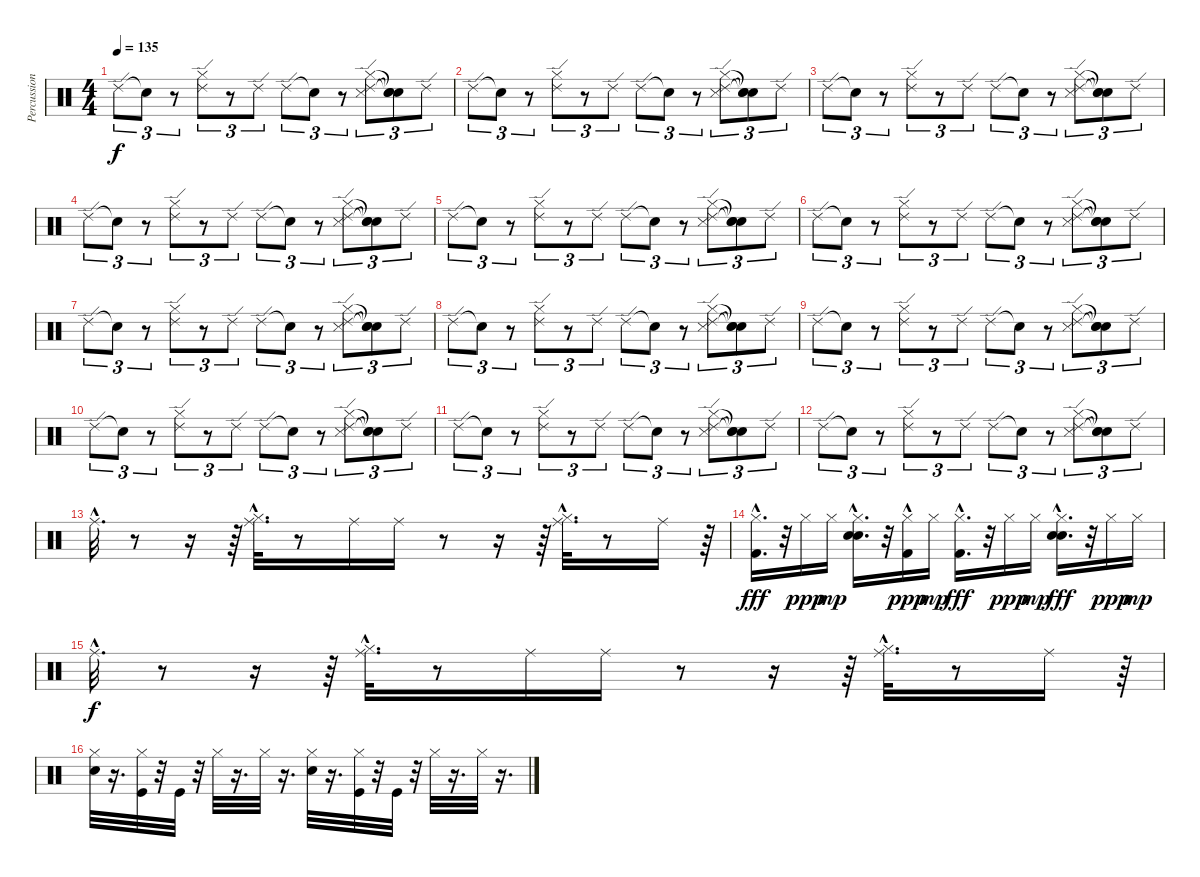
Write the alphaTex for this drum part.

\track ("Percussion" "Percussion") {instrument percussion}
\staff {score}
\articulation defaults
\ts (4 4)
\tempo 135
\clef neutral
\ks c "Ride (edge) 2".8{tu (3 2) dy f} "Snare (hit)"{t}.8{tu (3 2)}
r.8{tu (3 2)} ("Ride (edge) 2" "Hi-Hat (closed)").8{tu (3 2)} r.8{tu (3 2)} "Ride (edge) 2".8{tu (3 2)} "Ride (edge) 2".8{tu (3 2)} "Snare (hit)"{t}.8{tu (3 2)} r.8{tu (3 2)} ("Ride (edge) 2" "Snare (side stick) 3" "Hi-Hat (closed)").8{tu (3 2)} ("Snare (hit)"{t} "Snare (hit)"{t} "Snare (hit)"{t}).8{tu (3 2)} "Ride (edge) 2".8{tu (3 2)} |
"Ride (edge) 2".8{tu (3 2)} "Snare (hit)"{t}.8{tu (3 2)} r.8{tu (3 2)} ("Ride (edge) 2" "Hi-Hat (closed)").8{tu (3 2)} r.8{tu (3 2)} "Ride (edge) 2".8{tu (3 2)} "Ride (edge) 2".8{tu (3 2)} "Snare (hit)"{t}.8{tu (3 2)} r.8{tu (3 2)} ("Ride (edge) 2" "Snare (side stick) 3" "Hi-Hat (closed)").8{tu (3 2)} ("Snare (hit)"{t} "Snare (hit)"{t} "Snare (hit)"{t}).8{tu (3 2)} "Ride (edge) 2".8{tu (3 2)} |
"Ride (edge) 2".8{tu (3 2)} "Snare (hit)"{t}.8{tu (3 2)} r.8{tu (3 2)} ("Ride (edge) 2" "Hi-Hat (closed)").8{tu (3 2)} r.8{tu (3 2)} "Ride (edge) 2".8{tu (3 2)} "Ride (edge) 2".8{tu (3 2)} "Snare (hit)"{t}.8{tu (3 2)} r.8{tu (3 2)} ("Ride (edge) 2" "Snare (side stick) 3" "Hi-Hat (closed)").8{tu (3 2)} ("Snare (hit)"{t} "Snare (hit)"{t} "Snare (hit)"{t}).8{tu (3 2)} "Ride (edge) 2".8{tu (3 2)} |
"Ride (edge) 2".8{tu (3 2)} "Snare (hit)"{t}.8{tu (3 2)} r.8{tu (3 2)} ("Ride (edge) 2" "Hi-Hat (closed)").8{tu (3 2)} r.8{tu (3 2)} "Ride (edge) 2".8{tu (3 2)} "Ride (edge) 2".8{tu (3 2)} "Snare (hit)"{t}.8{tu (3 2)} r.8{tu (3 2)} ("Ride (edge) 2" "Snare (side stick) 3" "Hi-Hat (closed)").8{tu (3 2)} ("Snare (hit)"{t} "Snare (hit)"{t} "Snare (hit)"{t}).8{tu (3 2)} "Ride (edge) 2".8{tu (3 2)} |
"Ride (edge) 2".8{tu (3 2)} "Snare (hit)"{t}.8{tu (3 2)} r.8{tu (3 2)} ("Ride (edge) 2" "Hi-Hat (closed)").8{tu (3 2)} r.8{tu (3 2)} "Ride (edge) 2".8{tu (3 2)} "Ride (edge) 2".8{tu (3 2)} "Snare (hit)"{t}.8{tu (3 2)} r.8{tu (3 2)} ("Ride (edge) 2" "Snare (side stick) 3" "Hi-Hat (closed)").8{tu (3 2)} ("Snare (hit)"{t} "Snare (hit)"{t} "Snare (hit)"{t}).8{tu (3 2)} "Ride (edge) 2".8{tu (3 2)} |
"Ride (edge) 2".8{tu (3 2)} "Snare (hit)"{t}.8{tu (3 2)} r.8{tu (3 2)} ("Ride (edge) 2" "Hi-Hat (closed)").8{tu (3 2)} r.8{tu (3 2)} "Ride (edge) 2".8{tu (3 2)} "Ride (edge) 2".8{tu (3 2)} "Snare (hit)"{t}.8{tu (3 2)} r.8{tu (3 2)} ("Ride (edge) 2" "Snare (side stick) 3" "Hi-Hat (closed)").8{tu (3 2)} ("Snare (hit)"{t} "Snare (hit)"{t} "Snare (hit)"{t}).8{tu (3 2)} "Ride (edge) 2".8{tu (3 2)} |
"Ride (edge) 2".8{tu (3 2)} "Snare (hit)"{t}.8{tu (3 2)} r.8{tu (3 2)} ("Ride (edge) 2" "Hi-Hat (closed)").8{tu (3 2)} r.8{tu (3 2)} "Ride (edge) 2".8{tu (3 2)} "Ride (edge) 2".8{tu (3 2)} "Snare (hit)"{t}.8{tu (3 2)} r.8{tu (3 2)} ("Ride (edge) 2" "Snare (side stick) 3" "Hi-Hat (closed)").8{tu (3 2)} ("Snare (hit)"{t} "Snare (hit)"{t} "Snare (hit)"{t}).8{tu (3 2)} "Ride (edge) 2".8{tu (3 2)} |
"Ride (edge) 2".8{tu (3 2)} "Snare (hit)"{t}.8{tu (3 2)} r.8{tu (3 2)} ("Ride (edge) 2" "Hi-Hat (closed)").8{tu (3 2)} r.8{tu (3 2)} "Ride (edge) 2".8{tu (3 2)} "Ride (edge) 2".8{tu (3 2)} "Snare (hit)"{t}.8{tu (3 2)} r.8{tu (3 2)} ("Ride (edge) 2" "Snare (side stick) 3" "Hi-Hat (closed)").8{tu (3 2)} ("Snare (hit)"{t} "Snare (hit)"{t} "Snare (hit)"{t}).8{tu (3 2)} "Ride (edge) 2".8{tu (3 2)} |
"Ride (edge) 2".8{tu (3 2)} "Snare (hit)"{t}.8{tu (3 2)} r.8{tu (3 2)} ("Ride (edge) 2" "Hi-Hat (closed)").8{tu (3 2)} r.8{tu (3 2)} "Ride (edge) 2".8{tu (3 2)} "Ride (edge) 2".8{tu (3 2)} "Snare (hit)"{t}.8{tu (3 2)} r.8{tu (3 2)} ("Ride (edge) 2" "Snare (side stick) 3" "Hi-Hat (closed)").8{tu (3 2)} ("Snare (hit)"{t} "Snare (hit)"{t} "Snare (hit)"{t}).8{tu (3 2)} "Ride (edge) 2".8{tu (3 2)} |
"Ride (edge) 2".8{tu (3 2)} "Snare (hit)"{t}.8{tu (3 2)} r.8{tu (3 2)} ("Ride (edge) 2" "Hi-Hat (closed)").8{tu (3 2)} r.8{tu (3 2)} "Ride (edge) 2".8{tu (3 2)} "Ride (edge) 2".8{tu (3 2)} "Snare (hit)"{t}.8{tu (3 2)} r.8{tu (3 2)} ("Ride (edge) 2" "Snare (side stick) 3" "Hi-Hat (closed)").8{tu (3 2)} ("Snare (hit)"{t} "Snare (hit)"{t} "Snare (hit)"{t}).8{tu (3 2)} "Ride (edge) 2".8{tu (3 2)} |
"Ride (edge) 2".8{tu (3 2)} "Snare (hit)"{t}.8{tu (3 2)} r.8{tu (3 2)} ("Ride (edge) 2" "Hi-Hat (closed)").8{tu (3 2)} r.8{tu (3 2)} "Ride (edge) 2".8{tu (3 2)} "Ride (edge) 2".8{tu (3 2)} "Snare (hit)"{t}.8{tu (3 2)} r.8{tu (3 2)} ("Ride (edge) 2" "Snare (side stick) 3" "Hi-Hat (closed)").8{tu (3 2)} ("Snare (hit)"{t} "Snare (hit)"{t} "Snare (hit)"{t}).8{tu (3 2)} "Ride (edge) 2".8{tu (3 2)} |
"Ride (edge) 2".8{tu (3 2)} "Snare (hit)"{t}.8{tu (3 2)} r.8{tu (3 2)} ("Ride (edge) 2" "Hi-Hat (closed)").8{tu (3 2)} r.8{tu (3 2)} "Ride (edge) 2".8{tu (3 2)} "Ride (edge) 2".8{tu (3 2)} "Snare (hit)"{t}.8{tu (3 2)} r.8{tu (3 2)} ("Ride (edge) 2" "Snare (side stick) 3" "Hi-Hat (closed)").8{tu (3 2)} ("Snare (hit)"{t} "Snare (hit)"{t} "Snare (hit)"{t}).8{tu (3 2)} "Ride (edge) 2".8{tu (3 2)} |
"Ride (middle)"{hac}.32{d} r.8 r.16 r.64 ("Hi-Hat (closed)"{hac} "Ride (middle)"{hac}).32{d} r.8 "Ride (middle)".16 "Ride (middle)".16 r.8 r.16 r.64 ("Hi-Hat (closed)"{hac} "Ride (middle)"{hac}).32{d} r.8 "Ride (middle)".16 r.64 |
("Hi-Hat (closed)"{hac} "Kick (hit) 2"{hac}).16{d dy fff} r.32 "Hi-Hat (closed)".16{dy ppp} "Hi-Hat (closed)".16{dy mp} ("Hand Clap (hit)"{hac} "Snare (hit) 2"{hac} "Hi-Hat (closed)"{hac}).16{d} r.32 ("Kick (hit) 2"{hac} "Hi-Hat (closed)").16{dy ppp} "Hi-Hat (closed)".16{dy mp} ("Hi-Hat (closed)"{hac} "Kick (hit) 2"{hac}).16{d dy fff} r.32 "Hi-Hat (closed)".16{dy ppp} "Hi-Hat (closed)".16{dy mp} ("Hi-Hat (closed)"{hac} "Snare (hit) 2"{hac} "Hand Clap (hit)"{hac}).16{d dy fff} r.32 "Hi-Hat (closed)".16{dy ppp} "Hi-Hat (closed)".16{dy mp} |
"Ride (middle)"{hac}.32{d dy f} r.8 r.16 r.64 ("Hi-Hat (closed)"{hac} "Ride (middle)"{hac}).32{d} r.8 "Ride (middle)".16 "Ride (middle)".16 r.8 r.16 r.64 ("Hi-Hat (closed)"{hac} "Ride (middle)"{hac}).32{d} r.8 "Ride (middle)".16 r.64 |
("Hi-Hat (closed)" "Electric Snare (hit)").32 r.16{d} ("Hi-Hat (closed)" "Kick (hit)").32 r.32 "Kick (hit)".32 r.32 "Hi-Hat (closed)".32 r.16{d} "Hi-Hat (closed)".32 r.16{d} ("Hi-Hat (closed)" "Electric Snare (hit)").32 r.16{d} ("Hi-Hat (closed)" "Kick (hit)").32 r.32 "Kick (hit)".32 r.32 "Hi-Hat (closed)".32 r.16{d} "Hi-Hat (closed)".32 r.16{d}
